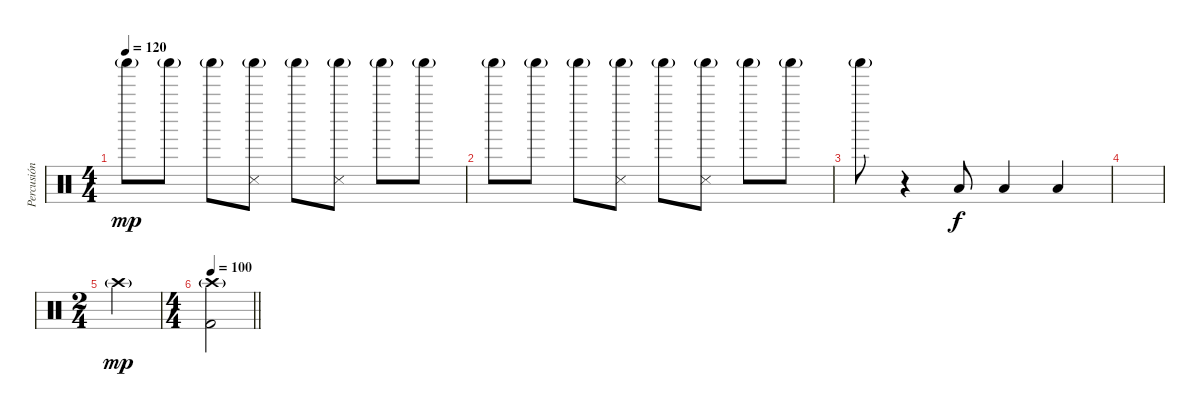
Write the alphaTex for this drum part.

\track ("Percusión" "Percusión") {instrument percussion}
\staff {score}
\articulation defaults
\ts (4 4)
\tempo 120
\clef neutral
\ks c "Shaker (hit)"{g}.8{dy mp} "Shaker (hit)"{g}.8 "Shaker (hit)"{g}.8
("Snare (side stick) 3" "Shaker (hit)"{g}).8 "Shaker (hit)"{g}.8 ("Snare (side stick) 3" "Shaker (hit)"{g}).8 "Shaker (hit)"{g}.8 "Shaker (hit)"{g}.8 |
"Shaker (hit)"{g}.8 "Shaker (hit)"{g}.8 "Shaker (hit)"{g}.8 ("Snare (side stick) 3" "Shaker (hit)"{g}).8 "Shaker (hit)"{g}.8 ("Snare (side stick) 3" "Shaker (hit)"{g}).8 "Shaker (hit)"{g}.8 "Shaker (hit)"{g}.8 |
"Shaker (hit)"{g}.8 r.4 "Low Tom (hit)".8{dy f} "Low Tom (hit)".4 "Low Tom (hit)".4 |
|
\ts (2 4)
"Crash high (hit)"{g}.2{dy mp} |
\ts (4 4)
\tempo 100
\barLineRight lightlight
("Kick (hit) 2" "Crash high (hit)"{g}).2
